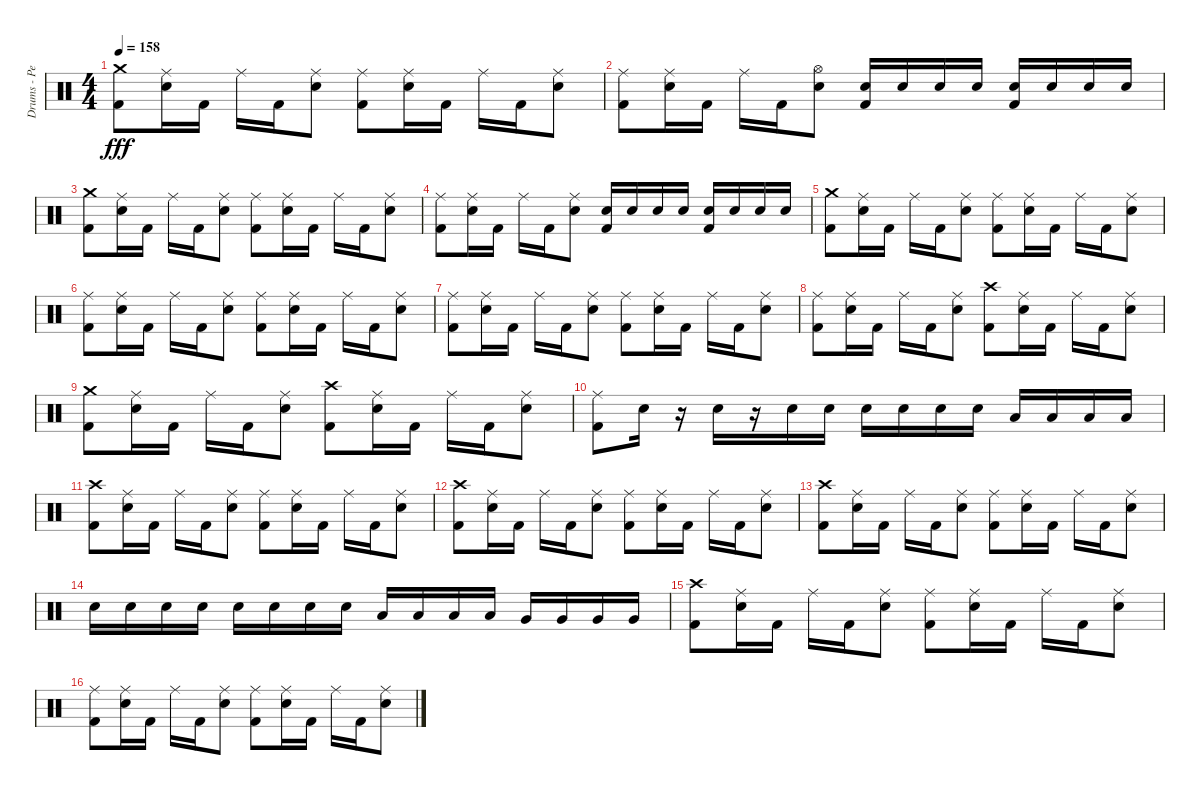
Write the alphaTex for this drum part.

\track ("Drums - Pete Finestone" "Drums - Pe") {instrument percussion}
\staff {score}
\articulation defaults
\ts (4 4)
\tempo 158
\clef neutral
\ks c
("Kick (hit) 2" "Crash medium (hit)").8{dy fff} ("Electric Snare (hit)" "Ride (middle)").16 "Kick (hit) 2".16 "Ride (middle)".16 "Kick (hit) 2".16 ("Electric Snare (hit)" "Ride (middle)").8 ("Kick (hit) 2" "Ride (middle)").8 ("Electric Snare (hit)" "Ride (middle)").16 "Kick (hit) 2".16 "Ride (middle)".16 "Kick (hit) 2".16 ("Electric Snare (hit)" "Ride (middle)").8 |
("Kick (hit) 2" "Ride (middle)").8 ("Electric Snare (hit)" "Ride (middle)").16 "Kick (hit) 2".16 "Ride (middle)".16 "Kick (hit) 2".16 ("Electric Snare (hit)" "Hi-Hat (open)").8 ("Kick (hit) 2" "Electric Snare (hit)").16 "Electric Snare (hit)".16 "Electric Snare (hit)".16 "Electric Snare (hit)".16 ("Kick (hit) 2" "Electric Snare (hit)").16 "Electric Snare (hit)".16 "Electric Snare (hit)".16 "Electric Snare (hit)".16 |
("Kick (hit) 2" "Crash medium (hit)").8 ("Electric Snare (hit)" "Ride (middle)").16 "Kick (hit) 2".16 "Ride (middle)".16 "Kick (hit) 2".16 ("Electric Snare (hit)" "Ride (middle)").8 ("Kick (hit) 2" "Ride (middle)").8 ("Electric Snare (hit)" "Ride (middle)").16 "Kick (hit) 2".16 "Ride (middle)".16 "Kick (hit) 2".16 ("Electric Snare (hit)" "Ride (middle)").8 |
("Kick (hit) 2" "Ride (middle)").8 ("Electric Snare (hit)" "Ride (middle)").16 "Kick (hit) 2".16 "Ride (middle)".16 "Kick (hit) 2".16 ("Electric Snare (hit)" "Ride (middle)").8 ("Kick (hit) 2" "Electric Snare (hit)").16 "Electric Snare (hit)".16 "Electric Snare (hit)".16 "Electric Snare (hit)".16 ("Kick (hit) 2" "Electric Snare (hit)").16 "Electric Snare (hit)".16 "Electric Snare (hit)".16 "Electric Snare (hit)".16 |
("Kick (hit) 2" "Crash medium (hit)").8 ("Electric Snare (hit)" "Ride (middle)").16 "Kick (hit) 2".16 "Ride (middle)".16 "Kick (hit) 2".16 ("Electric Snare (hit)" "Ride (middle)").8 ("Kick (hit) 2" "Ride (middle)").8 ("Electric Snare (hit)" "Ride (middle)").16 "Kick (hit) 2".16 "Ride (middle)".16 "Kick (hit) 2".16 ("Electric Snare (hit)" "Ride (middle)").8 |
("Kick (hit) 2" "Ride (middle)").8 ("Electric Snare (hit)" "Ride (middle)").16 "Kick (hit) 2".16 "Ride (middle)".16 "Kick (hit) 2".16 ("Electric Snare (hit)" "Ride (middle)").8 ("Kick (hit) 2" "Ride (middle)").8 ("Electric Snare (hit)" "Ride (middle)").16 "Kick (hit) 2".16 "Ride (middle)".16 "Kick (hit) 2".16 ("Electric Snare (hit)" "Ride (middle)").8 |
("Kick (hit) 2" "Ride (middle)").8 ("Electric Snare (hit)" "Ride (middle)").16 "Kick (hit) 2".16 "Ride (middle)".16 "Kick (hit) 2".16 ("Electric Snare (hit)" "Ride (middle)").8 ("Kick (hit) 2" "Ride (middle)").8 ("Electric Snare (hit)" "Ride (middle)").16 "Kick (hit) 2".16 "Ride (middle)".16 "Kick (hit) 2".16 ("Electric Snare (hit)" "Ride (middle)").8 |
("Kick (hit) 2" "Ride (middle)").8 ("Electric Snare (hit)" "Ride (middle)").16 "Kick (hit) 2".16 "Ride (middle)".16 "Kick (hit) 2".16 ("Electric Snare (hit)" "Ride (middle)").8 ("Kick (hit) 2" "Crash high (hit)").8 ("Electric Snare (hit)" "Ride (middle)").16 "Kick (hit) 2".16 "Ride (middle)".16 "Kick (hit) 2".16 ("Electric Snare (hit)" "Ride (middle)").8 |
("Kick (hit) 2" "Crash medium (hit)").8 ("Electric Snare (hit)" "Ride (middle)").16 "Kick (hit) 2".16 "Ride (middle)".16 "Kick (hit) 2".16 ("Electric Snare (hit)" "Ride (middle)").8 ("Kick (hit) 2" "Crash high (hit)").8 ("Electric Snare (hit)" "Ride (middle)").16 "Kick (hit) 2".16 "Ride (middle)".16 "Kick (hit) 2".16 ("Electric Snare (hit)" "Ride (middle)").8 |
("Kick (hit) 2" "Ride (middle)").8 "Electric Snare (hit)".16 r.16 "Electric Snare (hit)".16 r.16 "Electric Snare (hit)".16 "Electric Snare (hit)".16 "Electric Snare (hit)".16 "Electric Snare (hit)".16 "Electric Snare (hit)".16 "Electric Snare (hit)".16 "Low Tom (hit)".16 "Low Tom (hit)".16 "Low Tom (hit)".16 "Low Tom (hit)".16 |
("Kick (hit) 2" "Crash high (hit)").8 ("Ride (middle)" "Electric Snare (hit)").16 "Kick (hit) 2".16 "Ride (middle)".16 "Kick (hit) 2".16 ("Electric Snare (hit)" "Ride (middle)").8 ("Kick (hit) 2" "Ride (middle)").8 ("Electric Snare (hit)" "Ride (middle)").16 "Kick (hit) 2".16 "Ride (middle)".16 "Kick (hit) 2".16 ("Electric Snare (hit)" "Ride (middle)").8 |
("Kick (hit) 2" "Crash high (hit)").8 ("Ride (middle)" "Electric Snare (hit)").16 "Kick (hit) 2".16 "Ride (middle)".16 "Kick (hit) 2".16 ("Electric Snare (hit)" "Ride (middle)").8 ("Kick (hit) 2" "Ride (middle)").8 ("Electric Snare (hit)" "Ride (middle)").16 "Kick (hit) 2".16 "Ride (middle)".16 "Kick (hit) 2".16 ("Electric Snare (hit)" "Ride (middle)").8 |
("Kick (hit) 2" "Crash high (hit)").8 ("Ride (middle)" "Electric Snare (hit)").16 "Kick (hit) 2".16 "Ride (middle)".16 "Kick (hit) 2".16 ("Electric Snare (hit)" "Ride (middle)").8 ("Kick (hit) 2" "Ride (middle)").8 ("Electric Snare (hit)" "Ride (middle)").16 "Kick (hit) 2".16 "Ride (middle)".16 "Kick (hit) 2".16 ("Electric Snare (hit)" "Ride (middle)").8 |
"Electric Snare (hit)".16 "Electric Snare (hit)".16 "Electric Snare (hit)".16 "Electric Snare (hit)".16 "Electric Snare (hit)".16 "Electric Snare (hit)".16 "Electric Snare (hit)".16 "Electric Snare (hit)".16 "Low Tom (hit)".16 "Low Tom (hit)".16 "Low Tom (hit)".16 "Low Tom (hit)".16 "Very Low Tom (hit)".16 "Very Low Tom (hit)".16 "Very Low Tom (hit)".16 "Very Low Tom (hit)".16 |
("Kick (hit) 2" "Crash high (hit)").8 ("Ride (middle)" "Electric Snare (hit)").16 "Kick (hit) 2".16 "Ride (middle)".16 "Kick (hit) 2".16 ("Electric Snare (hit)" "Ride (middle)").8 ("Kick (hit) 2" "Ride (middle)").8 ("Electric Snare (hit)" "Ride (middle)").16 "Kick (hit) 2".16 "Ride (middle)".16 "Kick (hit) 2".16 ("Electric Snare (hit)" "Ride (middle)").8 |
("Kick (hit) 2" "Ride (middle)").8 ("Electric Snare (hit)" "Ride (middle)").16 "Kick (hit) 2".16 "Ride (middle)".16 "Kick (hit) 2".16 ("Electric Snare (hit)" "Ride (middle)").8 ("Kick (hit) 2" "Ride (middle)").8 ("Electric Snare (hit)" "Ride (middle)").16 "Kick (hit) 2".16 "Ride (middle)".16 "Kick (hit) 2".16 ("Electric Snare (hit)" "Ride (middle)").8
